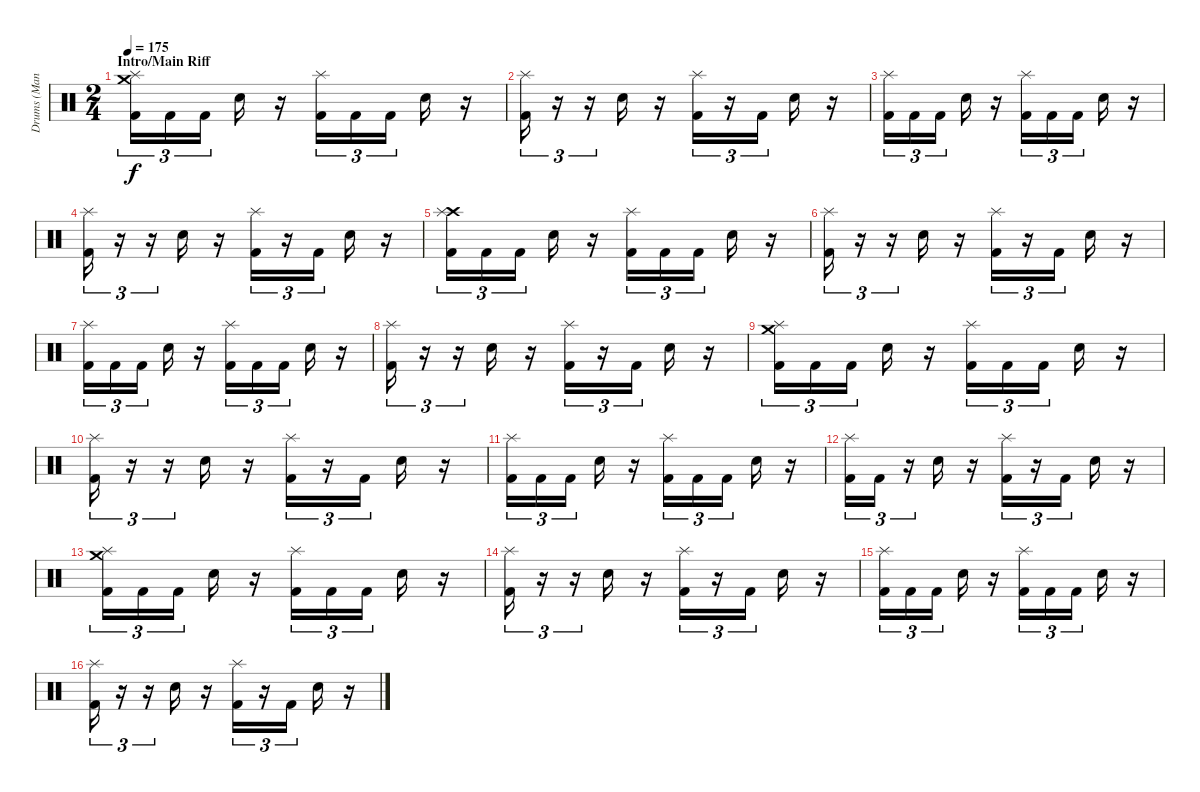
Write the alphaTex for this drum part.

\track ("Drums (Mancino)" "Drums (Man") {instrument percussion}
\staff {score}
\articulation defaults
\ts (2 4)
\section ("" "Intro/Main Riff")
\tempo 175
\clef neutral
\ks c
("Crash medium (hit)" "Splash (hit)" "Kick (hit) 2").16{tu (3 2) dy f} "Kick (hit) 2".16{tu (3 2)} "Kick (hit) 2".16{tu (3 2)} "Electric Snare (hit)".16 r.16 ("Splash (hit)" "Kick (hit) 2").16{tu (3 2)} "Kick (hit) 2".16{tu (3 2)} "Kick (hit) 2".16{tu (3 2)} "Electric Snare (hit)".16 r.16 |
("Splash (hit)" "Kick (hit) 2").16{tu (3 2)} r.16{tu (3 2)} r.16{tu (3 2)} "Electric Snare (hit)".16 r.16 ("Splash (hit)" "Kick (hit) 2").16{tu (3 2)} r.16{tu (3 2)} "Kick (hit) 2".16{tu (3 2)} "Electric Snare (hit)".16 r.16 |
("Splash (hit)" "Kick (hit) 2").16{tu (3 2)} "Kick (hit) 2".16{tu (3 2)} "Kick (hit) 2".16{tu (3 2)} "Electric Snare (hit)".16 r.16 ("Splash (hit)" "Kick (hit) 2").16{tu (3 2)} "Kick (hit) 2".16{tu (3 2)} "Kick (hit) 2".16{tu (3 2)} "Electric Snare (hit)".16 r.16 |
("Splash (hit)" "Kick (hit) 2").16{tu (3 2)} r.16{tu (3 2)} r.16{tu (3 2)} "Electric Snare (hit)".16 r.16 ("Splash (hit)" "Kick (hit) 2").16{tu (3 2)} r.16{tu (3 2)} "Kick (hit) 2".16{tu (3 2)} "Electric Snare (hit)".16 r.16 |
("Crash high (hit)" "Splash (hit)" "Kick (hit) 2").16{tu (3 2)} "Kick (hit) 2".16{tu (3 2)} "Kick (hit) 2".16{tu (3 2)} "Electric Snare (hit)".16 r.16 ("Splash (hit)" "Kick (hit) 2").16{tu (3 2)} "Kick (hit) 2".16{tu (3 2)} "Kick (hit) 2".16{tu (3 2)} "Electric Snare (hit)".16 r.16 |
("Splash (hit)" "Kick (hit) 2").16{tu (3 2)} r.16{tu (3 2)} r.16{tu (3 2)} "Electric Snare (hit)".16 r.16 ("Splash (hit)" "Kick (hit) 2").16{tu (3 2)} r.16{tu (3 2)} "Kick (hit) 2".16{tu (3 2)} "Electric Snare (hit)".16 r.16 |
("Splash (hit)" "Kick (hit) 2").16{tu (3 2)} "Kick (hit) 2".16{tu (3 2)} "Kick (hit) 2".16{tu (3 2)} "Electric Snare (hit)".16 r.16 ("Splash (hit)" "Kick (hit) 2").16{tu (3 2)} "Kick (hit) 2".16{tu (3 2)} "Kick (hit) 2".16{tu (3 2)} "Electric Snare (hit)".16 r.16 |
("Splash (hit)" "Kick (hit) 2").16{tu (3 2)} r.16{tu (3 2)} r.16{tu (3 2)} "Electric Snare (hit)".16 r.16 ("Splash (hit)" "Kick (hit) 2").16{tu (3 2)} r.16{tu (3 2)} "Kick (hit) 2".16{tu (3 2)} "Electric Snare (hit)".16 r.16 |
("Crash medium (hit)" "Splash (hit)" "Kick (hit) 2").16{tu (3 2)} "Kick (hit) 2".16{tu (3 2)} "Kick (hit) 2".16{tu (3 2)} "Electric Snare (hit)".16 r.16 ("Splash (hit)" "Kick (hit) 2").16{tu (3 2)} "Kick (hit) 2".16{tu (3 2)} "Kick (hit) 2".16{tu (3 2)} "Electric Snare (hit)".16 r.16 |
("Splash (hit)" "Kick (hit) 2").16{tu (3 2)} r.16{tu (3 2)} r.16{tu (3 2)} "Electric Snare (hit)".16 r.16 ("Splash (hit)" "Kick (hit) 2").16{tu (3 2)} r.16{tu (3 2)} "Kick (hit) 2".16{tu (3 2)} "Electric Snare (hit)".16 r.16 |
("Splash (hit)" "Kick (hit) 2").16{tu (3 2)} "Kick (hit) 2".16{tu (3 2)} "Kick (hit) 2".16{tu (3 2)} "Electric Snare (hit)".16 r.16 ("Splash (hit)" "Kick (hit) 2").16{tu (3 2)} "Kick (hit) 2".16{tu (3 2)} "Kick (hit) 2".16{tu (3 2)} "Electric Snare (hit)".16 r.16 |
("Splash (hit)" "Kick (hit) 2").16{tu (3 2)} "Kick (hit) 2".16{tu (3 2)} r.16{tu (3 2)} "Electric Snare (hit)".16 r.16 ("Splash (hit)" "Kick (hit) 2").16{tu (3 2)} r.16{tu (3 2)} "Kick (hit) 2".16{tu (3 2)} "Electric Snare (hit)".16 r.16 |
("Crash medium (hit)" "Splash (hit)" "Kick (hit) 2").16{tu (3 2)} "Kick (hit) 2".16{tu (3 2)} "Kick (hit) 2".16{tu (3 2)} "Electric Snare (hit)".16 r.16 ("Splash (hit)" "Kick (hit) 2").16{tu (3 2)} "Kick (hit) 2".16{tu (3 2)} "Kick (hit) 2".16{tu (3 2)} "Electric Snare (hit)".16 r.16 |
("Splash (hit)" "Kick (hit) 2").16{tu (3 2)} r.16{tu (3 2)} r.16{tu (3 2)} "Electric Snare (hit)".16 r.16 ("Splash (hit)" "Kick (hit) 2").16{tu (3 2)} r.16{tu (3 2)} "Kick (hit) 2".16{tu (3 2)} "Electric Snare (hit)".16 r.16 |
("Splash (hit)" "Kick (hit) 2").16{tu (3 2)} "Kick (hit) 2".16{tu (3 2)} "Kick (hit) 2".16{tu (3 2)} "Electric Snare (hit)".16 r.16 ("Splash (hit)" "Kick (hit) 2").16{tu (3 2)} "Kick (hit) 2".16{tu (3 2)} "Kick (hit) 2".16{tu (3 2)} "Electric Snare (hit)".16 r.16 |
("Splash (hit)" "Kick (hit) 2").16{tu (3 2)} r.16{tu (3 2)} r.16{tu (3 2)} "Electric Snare (hit)".16 r.16 ("Splash (hit)" "Kick (hit) 2").16{tu (3 2)} r.16{tu (3 2)} "Kick (hit) 2".16{tu (3 2)} "Electric Snare (hit)".16 r.16
